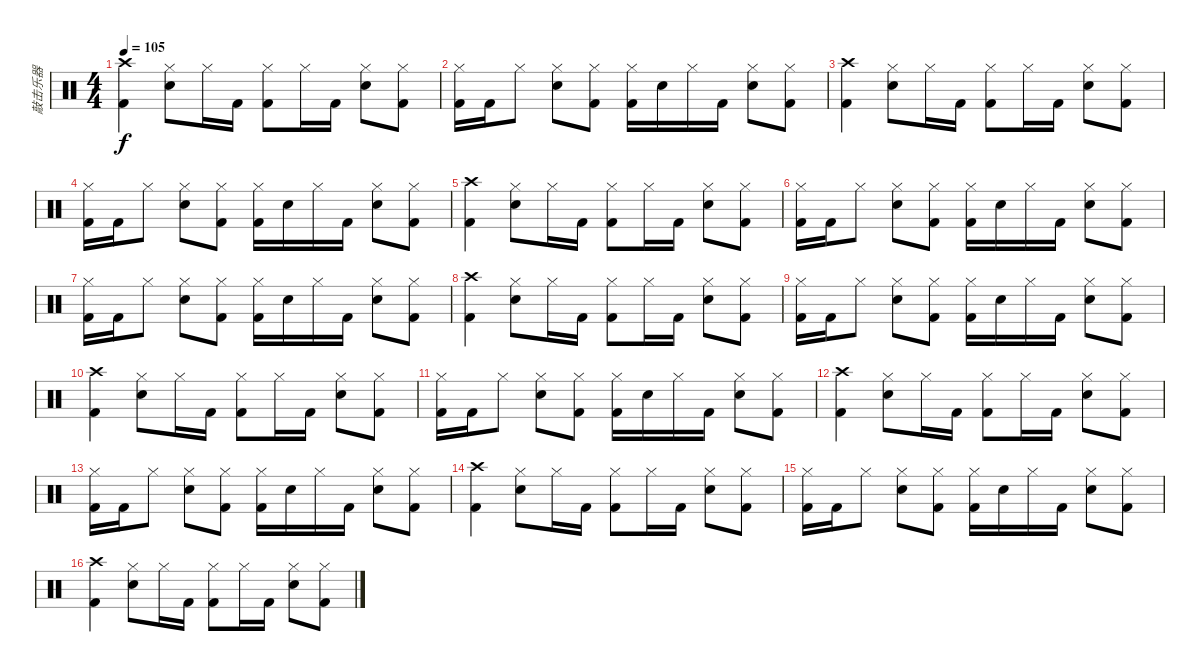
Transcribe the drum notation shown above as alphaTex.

\track ("敲击乐器" "敲击乐器") {instrument percussion}
\staff {score}
\articulation defaults
\ts (4 4)
\tempo 105
\clef neutral
\ks c
("Crash high (hit)" "Kick (hit) 2").4{dy f} ("Hi-Hat (closed)" "Snare (hit) 2").8 "Hi-Hat (closed)".16 "Kick (hit) 2".16 ("Hi-Hat (closed)" "Kick (hit) 2").8 "Hi-Hat (closed)".16 "Kick (hit) 2".16 ("Hi-Hat (closed)" "Snare (hit) 2").8 ("Hi-Hat (closed)" "Kick (hit) 2").8 |
("Hi-Hat (closed)" "Kick (hit) 2").16 "Kick (hit) 2".16 "Hi-Hat (closed)".8 ("Hi-Hat (closed)" "Snare (hit) 2").8 ("Hi-Hat (closed)" "Kick (hit) 2").8 ("Hi-Hat (closed)" "Kick (hit) 2").16 "Snare (hit) 2".16 "Hi-Hat (closed)".16 "Kick (hit) 2".16 ("Hi-Hat (closed)" "Snare (hit) 2").8 ("Hi-Hat (closed)" "Kick (hit) 2").8 |
("Crash high (hit)" "Kick (hit) 2").4 ("Hi-Hat (closed)" "Snare (hit) 2").8 "Hi-Hat (closed)".16 "Kick (hit) 2".16 ("Hi-Hat (closed)" "Kick (hit) 2").8 "Hi-Hat (closed)".16 "Kick (hit) 2".16 ("Hi-Hat (closed)" "Snare (hit) 2").8 ("Hi-Hat (closed)" "Kick (hit) 2").8 |
("Hi-Hat (closed)" "Kick (hit) 2").16 "Kick (hit) 2".16 "Hi-Hat (closed)".8 ("Hi-Hat (closed)" "Snare (hit) 2").8 ("Hi-Hat (closed)" "Kick (hit) 2").8 ("Hi-Hat (closed)" "Kick (hit) 2").16 "Snare (hit) 2".16 "Hi-Hat (closed)".16 "Kick (hit) 2".16 ("Hi-Hat (closed)" "Snare (hit) 2").8 ("Hi-Hat (closed)" "Kick (hit) 2").8 |
("Crash high (hit)" "Kick (hit) 2").4 ("Hi-Hat (closed)" "Snare (hit) 2").8 "Hi-Hat (closed)".16 "Kick (hit) 2".16 ("Hi-Hat (closed)" "Kick (hit) 2").8 "Hi-Hat (closed)".16 "Kick (hit) 2".16 ("Hi-Hat (closed)" "Snare (hit) 2").8 ("Hi-Hat (closed)" "Kick (hit) 2").8 |
("Hi-Hat (closed)" "Kick (hit) 2").16 "Kick (hit) 2".16 "Hi-Hat (closed)".8 ("Hi-Hat (closed)" "Snare (hit) 2").8 ("Hi-Hat (closed)" "Kick (hit) 2").8 ("Hi-Hat (closed)" "Kick (hit) 2").16 "Snare (hit) 2".16 "Hi-Hat (closed)".16 "Kick (hit) 2".16 ("Hi-Hat (closed)" "Snare (hit) 2").8 ("Hi-Hat (closed)" "Kick (hit) 2").8 |
("Hi-Hat (closed)" "Kick (hit) 2").16 "Kick (hit) 2".16 "Hi-Hat (closed)".8 ("Hi-Hat (closed)" "Snare (hit) 2").8 ("Hi-Hat (closed)" "Kick (hit) 2").8 ("Hi-Hat (closed)" "Kick (hit) 2").16 "Snare (hit) 2".16 "Hi-Hat (closed)".16 "Kick (hit) 2".16 ("Hi-Hat (closed)" "Snare (hit) 2").8 ("Hi-Hat (closed)" "Kick (hit) 2").8 |
("Crash high (hit)" "Kick (hit) 2").4 ("Hi-Hat (closed)" "Snare (hit) 2").8 "Hi-Hat (closed)".16 "Kick (hit) 2".16 ("Hi-Hat (closed)" "Kick (hit) 2").8 "Hi-Hat (closed)".16 "Kick (hit) 2".16 ("Hi-Hat (closed)" "Snare (hit) 2").8 ("Hi-Hat (closed)" "Kick (hit) 2").8 |
("Hi-Hat (closed)" "Kick (hit) 2").16 "Kick (hit) 2".16 "Hi-Hat (closed)".8 ("Hi-Hat (closed)" "Snare (hit) 2").8 ("Hi-Hat (closed)" "Kick (hit) 2").8 ("Hi-Hat (closed)" "Kick (hit) 2").16 "Snare (hit) 2".16 "Hi-Hat (closed)".16 "Kick (hit) 2".16 ("Hi-Hat (closed)" "Snare (hit) 2").8 ("Hi-Hat (closed)" "Kick (hit) 2").8 |
("Crash high (hit)" "Kick (hit) 2").4 ("Hi-Hat (closed)" "Snare (hit) 2").8 "Hi-Hat (closed)".16 "Kick (hit) 2".16 ("Hi-Hat (closed)" "Kick (hit) 2").8 "Hi-Hat (closed)".16 "Kick (hit) 2".16 ("Hi-Hat (closed)" "Snare (hit) 2").8 ("Hi-Hat (closed)" "Kick (hit) 2").8 |
("Hi-Hat (closed)" "Kick (hit) 2").16 "Kick (hit) 2".16 "Hi-Hat (closed)".8 ("Hi-Hat (closed)" "Snare (hit) 2").8 ("Hi-Hat (closed)" "Kick (hit) 2").8 ("Hi-Hat (closed)" "Kick (hit) 2").16 "Snare (hit) 2".16 "Hi-Hat (closed)".16 "Kick (hit) 2".16 ("Hi-Hat (closed)" "Snare (hit) 2").8 ("Hi-Hat (closed)" "Kick (hit) 2").8 |
("Crash high (hit)" "Kick (hit) 2").4 ("Hi-Hat (closed)" "Snare (hit) 2").8 "Hi-Hat (closed)".16 "Kick (hit) 2".16 ("Hi-Hat (closed)" "Kick (hit) 2").8 "Hi-Hat (closed)".16 "Kick (hit) 2".16 ("Hi-Hat (closed)" "Snare (hit) 2").8 ("Hi-Hat (closed)" "Kick (hit) 2").8 |
("Hi-Hat (closed)" "Kick (hit) 2").16 "Kick (hit) 2".16 "Hi-Hat (closed)".8 ("Hi-Hat (closed)" "Snare (hit) 2").8 ("Hi-Hat (closed)" "Kick (hit) 2").8 ("Hi-Hat (closed)" "Kick (hit) 2").16 "Snare (hit) 2".16 "Hi-Hat (closed)".16 "Kick (hit) 2".16 ("Hi-Hat (closed)" "Snare (hit) 2").8 ("Hi-Hat (closed)" "Kick (hit) 2").8 |
("Crash high (hit)" "Kick (hit) 2").4 ("Hi-Hat (closed)" "Snare (hit) 2").8 "Hi-Hat (closed)".16 "Kick (hit) 2".16 ("Hi-Hat (closed)" "Kick (hit) 2").8 "Hi-Hat (closed)".16 "Kick (hit) 2".16 ("Hi-Hat (closed)" "Snare (hit) 2").8 ("Hi-Hat (closed)" "Kick (hit) 2").8 |
("Hi-Hat (closed)" "Kick (hit) 2").16 "Kick (hit) 2".16 "Hi-Hat (closed)".8 ("Hi-Hat (closed)" "Snare (hit) 2").8 ("Hi-Hat (closed)" "Kick (hit) 2").8 ("Hi-Hat (closed)" "Kick (hit) 2").16 "Snare (hit) 2".16 "Hi-Hat (closed)".16 "Kick (hit) 2".16 ("Hi-Hat (closed)" "Snare (hit) 2").8 ("Hi-Hat (closed)" "Kick (hit) 2").8 |
("Crash high (hit)" "Kick (hit) 2").4 ("Hi-Hat (closed)" "Snare (hit) 2").8 "Hi-Hat (closed)".16 "Kick (hit) 2".16 ("Hi-Hat (closed)" "Kick (hit) 2").8 "Hi-Hat (closed)".16 "Kick (hit) 2".16 ("Hi-Hat (closed)" "Snare (hit) 2").8 ("Hi-Hat (closed)" "Kick (hit) 2").8
